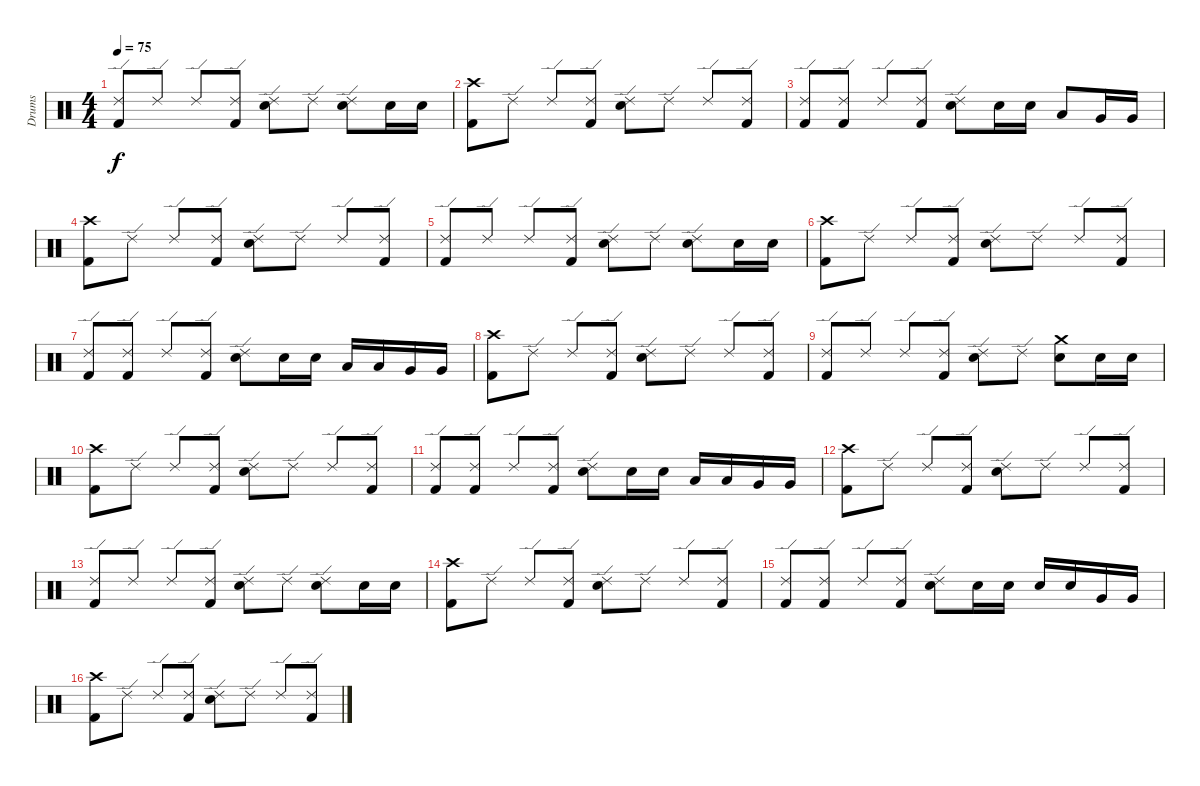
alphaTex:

\track ("Drums" "Drums") {instrument percussion}
\staff {score}
\articulation defaults
\ts (4 4)
\tempo 75
\clef neutral
\ks c
("Ride (edge) 2" "Kick (hit) 2").8{dy f} "Ride (edge) 2".8 "Ride (edge) 2".8 ("Ride (edge) 2" "Kick (hit) 2").8 ("Ride (edge) 2" "Electric Snare (hit)").8 "Ride (edge) 2".8 ("Ride (edge) 2" "Electric Snare (hit)").8 "Electric Snare (hit)".16 "Electric Snare (hit)".16 |
("Crash high (hit)" "Kick (hit) 2").8 "Ride (edge) 2".8 "Ride (edge) 2".8 ("Ride (edge) 2" "Kick (hit) 2").8 ("Ride (edge) 2" "Electric Snare (hit)").8 "Ride (edge) 2".8 "Ride (edge) 2".8 ("Ride (edge) 2" "Kick (hit) 2").8 |
("Ride (edge) 2" "Kick (hit) 2").8 ("Ride (edge) 2" "Kick (hit) 2").8 "Ride (edge) 2".8 ("Ride (edge) 2" "Kick (hit) 2").8 ("Ride (edge) 2" "Electric Snare (hit)").8 "Electric Snare (hit)".16 "Electric Snare (hit)".16 "Low Tom (hit)".8 "Very Low Tom (hit)".16 "Very Low Tom (hit)".16 |
("Crash high (hit)" "Kick (hit) 2").8 "Ride (edge) 2".8 "Ride (edge) 2".8 ("Ride (edge) 2" "Kick (hit) 2").8 ("Ride (edge) 2" "Electric Snare (hit)").8 "Ride (edge) 2".8 "Ride (edge) 2".8 ("Ride (edge) 2" "Kick (hit) 2").8 |
("Ride (edge) 2" "Kick (hit) 2").8 "Ride (edge) 2".8 "Ride (edge) 2".8 ("Ride (edge) 2" "Kick (hit) 2").8 ("Ride (edge) 2" "Electric Snare (hit)").8 "Ride (edge) 2".8 ("Ride (edge) 2" "Electric Snare (hit)").8 "Electric Snare (hit)".16 "Electric Snare (hit)".16 |
("Crash high (hit)" "Kick (hit) 2").8 "Ride (edge) 2".8 "Ride (edge) 2".8 ("Ride (edge) 2" "Kick (hit) 2").8 ("Ride (edge) 2" "Electric Snare (hit)").8 "Ride (edge) 2".8 "Ride (edge) 2".8 ("Ride (edge) 2" "Kick (hit) 2").8 |
("Ride (edge) 2" "Kick (hit) 2").8 ("Ride (edge) 2" "Kick (hit) 2").8 "Ride (edge) 2".8 ("Ride (edge) 2" "Kick (hit) 2").8 ("Ride (edge) 2" "Electric Snare (hit)").8 "Electric Snare (hit)".16 "Electric Snare (hit)".16 "Low Tom (hit)".16 "Low Tom (hit)".16 "Very Low Tom (hit)".16 "Very Low Tom (hit)".16 |
("Crash high (hit)" "Kick (hit) 2").8 "Ride (edge) 2".8 "Ride (edge) 2".8 ("Ride (edge) 2" "Kick (hit) 2").8 ("Ride (edge) 2" "Electric Snare (hit)").8 "Ride (edge) 2".8 "Ride (edge) 2".8 ("Ride (edge) 2" "Kick (hit) 2").8 |
("Ride (edge) 2" "Kick (hit) 2").8 "Ride (edge) 2".8 "Ride (edge) 2".8 ("Ride (edge) 2" "Kick (hit) 2").8 ("Ride (edge) 2" "Electric Snare (hit)").8 "Ride (edge) 2".8 ("Crash medium (hit)" "Electric Snare (hit)").8 "Electric Snare (hit)".16 "Electric Snare (hit)".16 |
("Crash high (hit)" "Kick (hit) 2").8 "Ride (edge) 2".8 "Ride (edge) 2".8 ("Ride (edge) 2" "Kick (hit) 2").8 ("Ride (edge) 2" "Electric Snare (hit)").8 "Ride (edge) 2".8 "Ride (edge) 2".8 ("Ride (edge) 2" "Kick (hit) 2").8 |
("Ride (edge) 2" "Kick (hit) 2").8 ("Ride (edge) 2" "Kick (hit) 2").8 "Ride (edge) 2".8 ("Ride (edge) 2" "Kick (hit) 2").8 ("Ride (edge) 2" "Electric Snare (hit)").8 "Electric Snare (hit)".16 "Electric Snare (hit)".16 "Low Tom (hit)".16 "Low Tom (hit)".16 "Very Low Tom (hit)".16 "Very Low Tom (hit)".16 |
("Crash high (hit)" "Kick (hit) 2").8 "Ride (edge) 2".8 "Ride (edge) 2".8 ("Ride (edge) 2" "Kick (hit) 2").8 ("Ride (edge) 2" "Electric Snare (hit)").8 "Ride (edge) 2".8 "Ride (edge) 2".8 ("Ride (edge) 2" "Kick (hit) 2").8 |
("Ride (edge) 2" "Kick (hit) 2").8 "Ride (edge) 2".8 "Ride (edge) 2".8 ("Ride (edge) 2" "Kick (hit) 2").8 ("Ride (edge) 2" "Electric Snare (hit)").8 "Ride (edge) 2".8 ("Ride (edge) 2" "Electric Snare (hit)").8 "Electric Snare (hit)".16 "Electric Snare (hit)".16 |
("Crash high (hit)" "Kick (hit) 2").8 "Ride (edge) 2".8 "Ride (edge) 2".8 ("Ride (edge) 2" "Kick (hit) 2").8 ("Ride (edge) 2" "Electric Snare (hit)").8 "Ride (edge) 2".8 "Ride (edge) 2".8 ("Ride (edge) 2" "Kick (hit) 2").8 |
("Ride (edge) 2" "Kick (hit) 2").8 ("Ride (edge) 2" "Kick (hit) 2").8 "Ride (edge) 2".8 ("Ride (edge) 2" "Kick (hit) 2").8 ("Ride (edge) 2" "Electric Snare (hit)").8 "Electric Snare (hit)".16 "Electric Snare (hit)".16 "Electric Snare (hit)".16 "Electric Snare (hit)".16 "Very Low Tom (hit)".16 "Very Low Tom (hit)".16 |
("Crash high (hit)" "Kick (hit) 2").8 "Ride (edge) 2".8 "Ride (edge) 2".8 ("Ride (edge) 2" "Kick (hit) 2").8 ("Ride (edge) 2" "Electric Snare (hit)").8 "Ride (edge) 2".8 "Ride (edge) 2".8 ("Ride (edge) 2" "Kick (hit) 2").8
